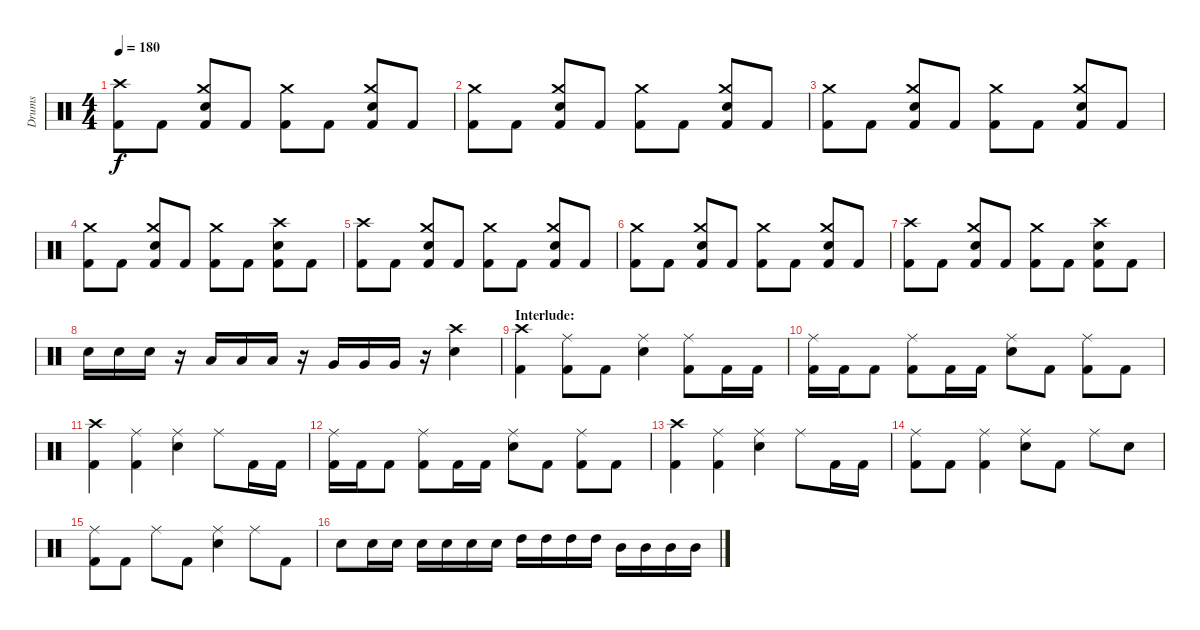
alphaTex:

\track ("Drums" "Drums") {instrument percussion}
\staff {score}
\articulation defaults
\ts (4 4)
\tempo 180
\clef neutral
\ks c
("Crash high (hit)" "Kick (hit) 2").8{dy f} "Kick (hit) 2".8 ("Crash medium (hit)" "Electric Snare (hit)" "Kick (hit) 2").8 "Kick (hit) 2".8 ("Crash medium (hit)" "Kick (hit) 2").8 "Kick (hit) 2".8 ("Crash medium (hit)" "Electric Snare (hit)" "Kick (hit) 2").8 "Kick (hit) 2".8 |
("Crash medium (hit)" "Kick (hit) 2").8 "Kick (hit) 2".8 ("Crash medium (hit)" "Electric Snare (hit)" "Kick (hit) 2").8 "Kick (hit) 2".8 ("Crash medium (hit)" "Kick (hit) 2").8 "Kick (hit) 2".8 ("Crash medium (hit)" "Electric Snare (hit)" "Kick (hit) 2").8 "Kick (hit) 2".8 |
("Crash medium (hit)" "Kick (hit) 2").8 "Kick (hit) 2".8 ("Crash medium (hit)" "Electric Snare (hit)" "Kick (hit) 2").8 "Kick (hit) 2".8 ("Crash medium (hit)" "Kick (hit) 2").8 "Kick (hit) 2".8 ("Crash medium (hit)" "Electric Snare (hit)" "Kick (hit) 2").8 "Kick (hit) 2".8 |
("Crash medium (hit)" "Kick (hit) 2").8 "Kick (hit) 2".8 ("Crash medium (hit)" "Electric Snare (hit)" "Kick (hit) 2").8 "Kick (hit) 2".8 ("Crash medium (hit)" "Kick (hit) 2").8 "Kick (hit) 2".8 ("Crash high (hit)" "Electric Snare (hit)" "Kick (hit) 2").8 "Kick (hit) 2".8 |
("Crash high (hit)" "Kick (hit) 2").8 "Kick (hit) 2".8 ("Crash medium (hit)" "Electric Snare (hit)" "Kick (hit) 2").8 "Kick (hit) 2".8 ("Crash medium (hit)" "Kick (hit) 2").8 "Kick (hit) 2".8 ("Crash medium (hit)" "Electric Snare (hit)" "Kick (hit) 2").8 "Kick (hit) 2".8 |
("Crash medium (hit)" "Kick (hit) 2").8 "Kick (hit) 2".8 ("Crash medium (hit)" "Electric Snare (hit)" "Kick (hit) 2").8 "Kick (hit) 2".8 ("Crash medium (hit)" "Kick (hit) 2").8 "Kick (hit) 2".8 ("Crash medium (hit)" "Electric Snare (hit)" "Kick (hit) 2").8 "Kick (hit) 2".8 |
("Crash high (hit)" "Kick (hit) 2").8 "Kick (hit) 2".8 ("Crash medium (hit)" "Electric Snare (hit)" "Kick (hit) 2").8 "Kick (hit) 2".8 ("Crash medium (hit)" "Kick (hit) 2").8 "Kick (hit) 2".8 ("Crash high (hit)" "Electric Snare (hit)" "Kick (hit) 2").8 "Kick (hit) 2".8 |
"Electric Snare (hit)".16 "Electric Snare (hit)".16 "Electric Snare (hit)".16 r.16 "Low Tom (hit)".16 "Low Tom (hit)".16 "Low Tom (hit)".16 r.16 "Very Low Tom (hit)".16 "Very Low Tom (hit)".16 "Very Low Tom (hit)".16 r.16 ("Crash high (hit)" "Electric Snare (hit)").4 |
\section ("" "Interlude:")
("Crash high (hit)" "Kick (hit) 2").4 ("Ride (middle)" "Kick (hit) 2").8 "Kick (hit) 2".8 ("Ride (middle)" "Electric Snare (hit)").4 ("Ride (middle)" "Kick (hit) 2").8 "Kick (hit) 2".16 "Kick (hit) 2".16 |
("Ride (middle)" "Kick (hit) 2").16 "Kick (hit) 2".16 "Kick (hit) 2".8 ("Ride (middle)" "Kick (hit) 2").8 "Kick (hit) 2".16 "Kick (hit) 2".16 ("Ride (middle)" "Electric Snare (hit)").8 "Kick (hit) 2".8 ("Ride (middle)" "Kick (hit) 2").8 "Kick (hit) 2".8 |
("Crash high (hit)" "Kick (hit) 2").4 ("Ride (middle)" "Kick (hit) 2").4 ("Ride (middle)" "Electric Snare (hit)").4 "Ride (middle)".8 "Kick (hit) 2".16 "Kick (hit) 2".16 |
("Ride (middle)" "Kick (hit) 2").16 "Kick (hit) 2".16 "Kick (hit) 2".8 ("Ride (middle)" "Kick (hit) 2").8 "Kick (hit) 2".16 "Kick (hit) 2".16 ("Ride (middle)" "Electric Snare (hit)").8 "Kick (hit) 2".8 ("Ride (middle)" "Kick (hit) 2").8 "Kick (hit) 2".8 |
("Crash high (hit)" "Kick (hit) 2").4 ("Ride (middle)" "Kick (hit) 2").4 ("Ride (middle)" "Electric Snare (hit)").4 "Ride (middle)".8 "Kick (hit) 2".16 "Kick (hit) 2".16 |
("Ride (middle)" "Kick (hit) 2").8 "Kick (hit) 2".8 ("Ride (middle)" "Kick (hit) 2").4 ("Ride (middle)" "Electric Snare (hit)").8 "Kick (hit) 2".8 "Ride (middle)".8 "Electric Snare (hit)".8 |
("Ride (middle)" "Kick (hit) 2").8 "Kick (hit) 2".8 "Ride (middle)".8 "Kick (hit) 2".8 ("Ride (middle)" "Electric Snare (hit)").4 "Ride (middle)".8 "Kick (hit) 2".8 |
"Electric Snare (hit)".8 "Electric Snare (hit)".16 "Electric Snare (hit)".16 "Electric Snare (hit)".16 "Electric Snare (hit)".16 "Electric Snare (hit)".16 "Electric Snare (hit)".16 "High Tom (hit)".16 "High Tom (hit)".16 "High Tom (hit)".16 "High Tom (hit)".16 "Mid Tom (hit)".16 "Mid Tom (hit)".16 "Mid Tom (hit)".16 "Mid Tom (hit)".16
